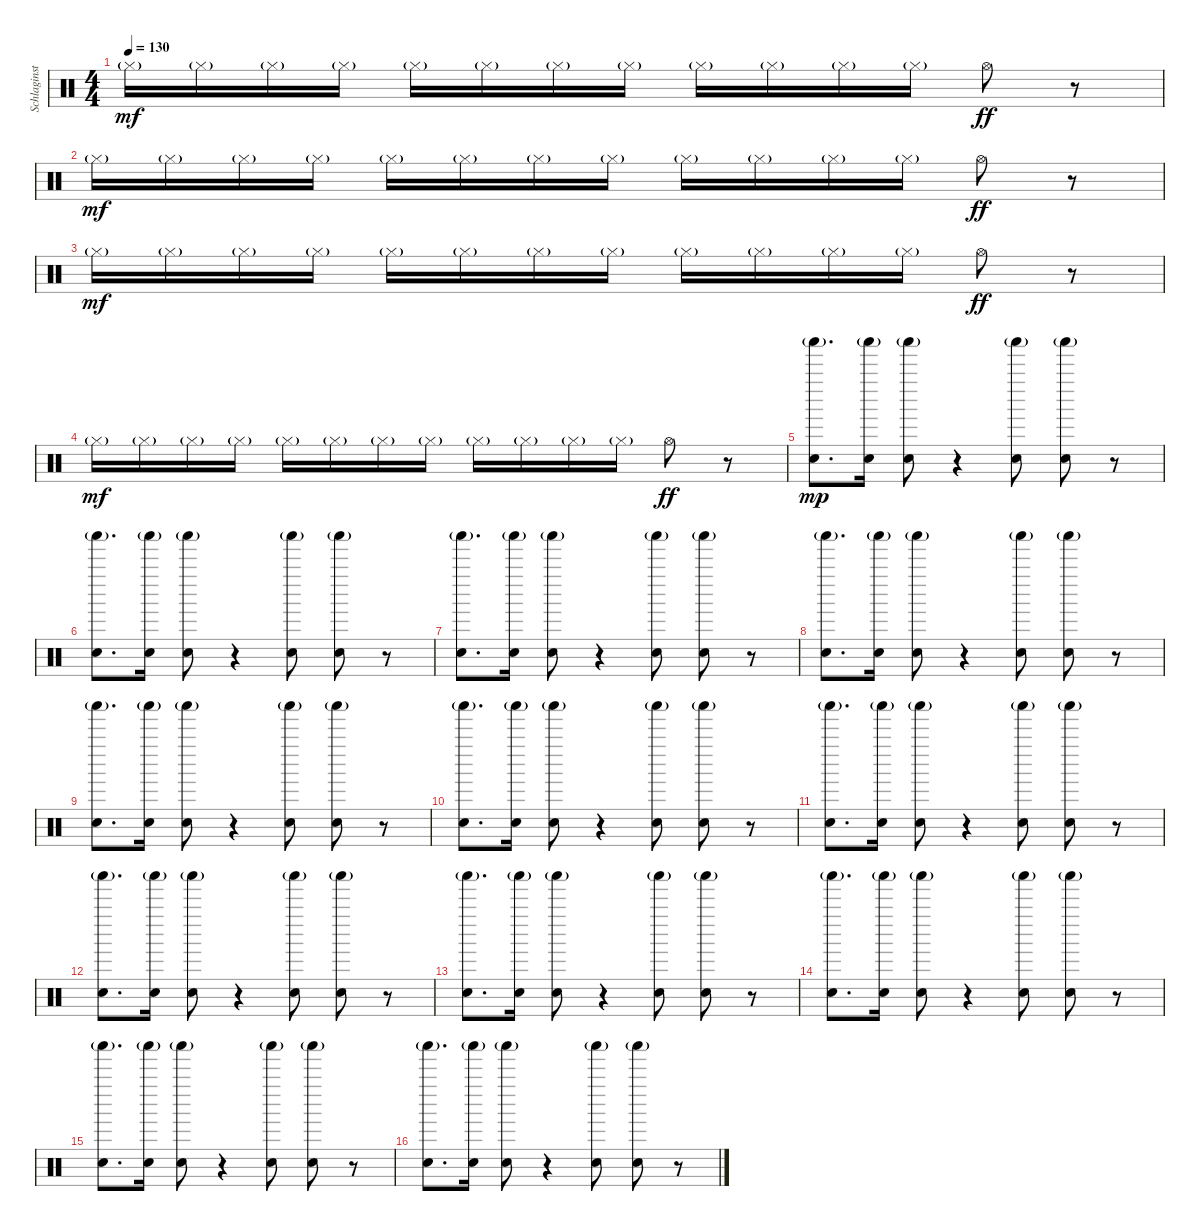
\track ("Schlaginstrumente - Auswahl" "Schlaginst") {instrument percussion}
\staff {score}
\articulation defaults
\ts (4 4)
\tempo 130
\clef neutral
\ks c "Hi-Hat (closed)"{g}.16{dy mf} "Hi-Hat (closed)"{g}.16 "Hi-Hat (closed)"{g}.16 "Hi-Hat (closed)"{g}.16 "Hi-Hat (closed)"{g}.16 "Hi-Hat (closed)"{g}.16 "Hi-Hat (closed)"{g}.16 "Hi-Hat (closed)"{g}.16 "Hi-Hat (closed)"{g}.16 "Hi-Hat (closed)"{g}.16 "Hi-Hat (closed)"{g}.16 "Hi-Hat (closed)"{g}.16 "Hi-Hat (open)".8{dy ff}
r.8 |
"Hi-Hat (closed)"{g}.16{dy mf} "Hi-Hat (closed)"{g}.16 "Hi-Hat (closed)"{g}.16 "Hi-Hat (closed)"{g}.16 "Hi-Hat (closed)"{g}.16 "Hi-Hat (closed)"{g}.16 "Hi-Hat (closed)"{g}.16 "Hi-Hat (closed)"{g}.16 "Hi-Hat (closed)"{g}.16 "Hi-Hat (closed)"{g}.16 "Hi-Hat (closed)"{g}.16 "Hi-Hat (closed)"{g}.16 "Hi-Hat (open)".8{dy ff} r.8 |
"Hi-Hat (closed)"{g}.16{dy mf} "Hi-Hat (closed)"{g}.16 "Hi-Hat (closed)"{g}.16 "Hi-Hat (closed)"{g}.16 "Hi-Hat (closed)"{g}.16 "Hi-Hat (closed)"{g}.16 "Hi-Hat (closed)"{g}.16 "Hi-Hat (closed)"{g}.16 "Hi-Hat (closed)"{g}.16 "Hi-Hat (closed)"{g}.16 "Hi-Hat (closed)"{g}.16 "Hi-Hat (closed)"{g}.16 "Hi-Hat (open)".8{dy ff} r.8 |
"Hi-Hat (closed)"{g}.16{dy mf} "Hi-Hat (closed)"{g}.16 "Hi-Hat (closed)"{g}.16 "Hi-Hat (closed)"{g}.16 "Hi-Hat (closed)"{g}.16 "Hi-Hat (closed)"{g}.16 "Hi-Hat (closed)"{g}.16 "Hi-Hat (closed)"{g}.16 "Hi-Hat (closed)"{g}.16 "Hi-Hat (closed)"{g}.16 "Hi-Hat (closed)"{g}.16 "Hi-Hat (closed)"{g}.16 "Hi-Hat (open)".8{dy ff} r.8 |
("Shaker (hit)"{g} "Hand Clap (hit)").8{d dy mp} ("Shaker (hit)"{g} "Hand Clap (hit)").16 ("Shaker (hit)"{g} "Hand Clap (hit)").8 r.4 ("Shaker (hit)"{g} "Hand Clap (hit)").8 ("Shaker (hit)"{g} "Hand Clap (hit)").8 r.8 |
("Shaker (hit)"{g} "Hand Clap (hit)").8{d} ("Shaker (hit)"{g} "Hand Clap (hit)").16 ("Shaker (hit)"{g} "Hand Clap (hit)").8 r.4 ("Shaker (hit)"{g} "Hand Clap (hit)").8 ("Shaker (hit)"{g} "Hand Clap (hit)").8 r.8 |
("Shaker (hit)"{g} "Hand Clap (hit)").8{d} ("Shaker (hit)"{g} "Hand Clap (hit)").16 ("Shaker (hit)"{g} "Hand Clap (hit)").8 r.4 ("Shaker (hit)"{g} "Hand Clap (hit)").8 ("Shaker (hit)"{g} "Hand Clap (hit)").8 r.8 |
("Shaker (hit)"{g} "Hand Clap (hit)").8{d} ("Shaker (hit)"{g} "Hand Clap (hit)").16 ("Shaker (hit)"{g} "Hand Clap (hit)").8 r.4 ("Shaker (hit)"{g} "Hand Clap (hit)").8 ("Shaker (hit)"{g} "Hand Clap (hit)").8 r.8 |
("Shaker (hit)"{g} "Hand Clap (hit)").8{d} ("Shaker (hit)"{g} "Hand Clap (hit)").16 ("Shaker (hit)"{g} "Hand Clap (hit)").8 r.4 ("Shaker (hit)"{g} "Hand Clap (hit)").8 ("Shaker (hit)"{g} "Hand Clap (hit)").8 r.8 |
("Shaker (hit)"{g} "Hand Clap (hit)").8{d} ("Shaker (hit)"{g} "Hand Clap (hit)").16 ("Shaker (hit)"{g} "Hand Clap (hit)").8 r.4 ("Shaker (hit)"{g} "Hand Clap (hit)").8 ("Shaker (hit)"{g} "Hand Clap (hit)").8 r.8 |
("Shaker (hit)"{g} "Hand Clap (hit)").8{d} ("Shaker (hit)"{g} "Hand Clap (hit)").16 ("Shaker (hit)"{g} "Hand Clap (hit)").8 r.4 ("Shaker (hit)"{g} "Hand Clap (hit)").8 ("Shaker (hit)"{g} "Hand Clap (hit)").8 r.8 |
("Shaker (hit)"{g} "Hand Clap (hit)").8{d} ("Shaker (hit)"{g} "Hand Clap (hit)").16 ("Shaker (hit)"{g} "Hand Clap (hit)").8 r.4 ("Shaker (hit)"{g} "Hand Clap (hit)").8 ("Shaker (hit)"{g} "Hand Clap (hit)").8 r.8 |
("Shaker (hit)"{g} "Hand Clap (hit)").8{d} ("Shaker (hit)"{g} "Hand Clap (hit)").16 ("Shaker (hit)"{g} "Hand Clap (hit)").8 r.4 ("Shaker (hit)"{g} "Hand Clap (hit)").8 ("Shaker (hit)"{g} "Hand Clap (hit)").8 r.8 |
("Shaker (hit)"{g} "Hand Clap (hit)").8{d} ("Shaker (hit)"{g} "Hand Clap (hit)").16 ("Shaker (hit)"{g} "Hand Clap (hit)").8 r.4 ("Shaker (hit)"{g} "Hand Clap (hit)").8 ("Shaker (hit)"{g} "Hand Clap (hit)").8 r.8 |
("Shaker (hit)"{g} "Hand Clap (hit)").8{d} ("Shaker (hit)"{g} "Hand Clap (hit)").16 ("Shaker (hit)"{g} "Hand Clap (hit)").8 r.4 ("Shaker (hit)"{g} "Hand Clap (hit)").8 ("Shaker (hit)"{g} "Hand Clap (hit)").8 r.8 |
("Shaker (hit)"{g} "Hand Clap (hit)").8{d} ("Shaker (hit)"{g} "Hand Clap (hit)").16 ("Shaker (hit)"{g} "Hand Clap (hit)").8 r.4 ("Shaker (hit)"{g} "Hand Clap (hit)").8 ("Shaker (hit)"{g} "Hand Clap (hit)").8 r.8
